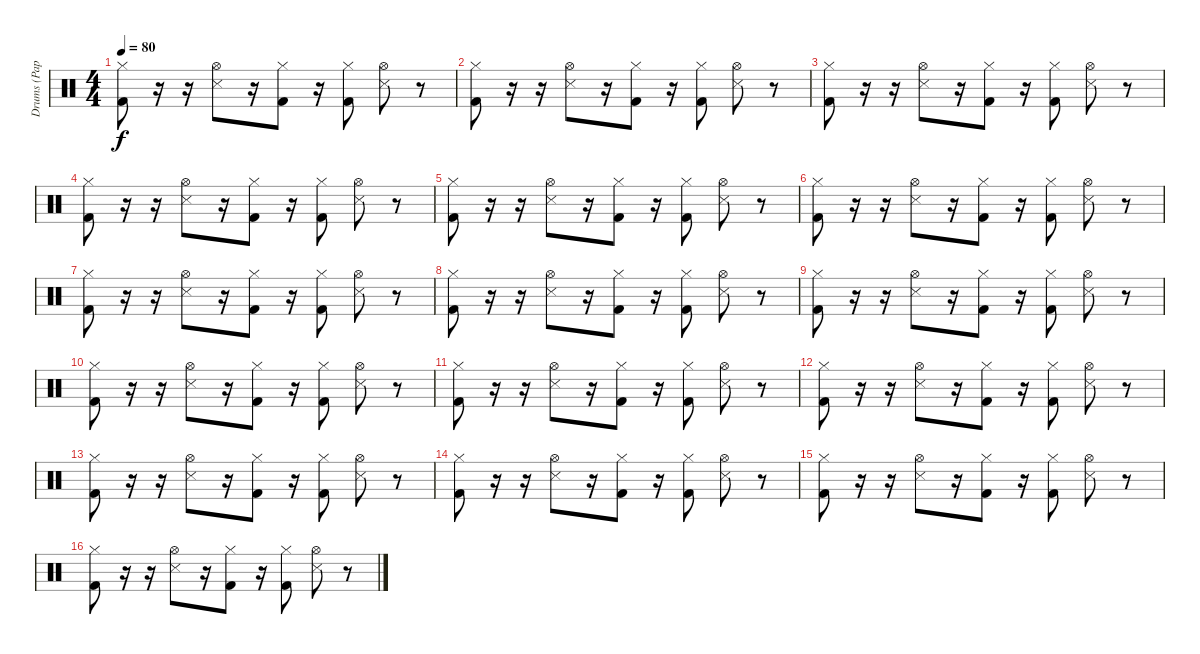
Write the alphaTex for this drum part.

\track ("Drums (Pappas)" "Drums (Pap") {instrument percussion}
\staff {score}
\articulation defaults
\ts (4 4)
\tempo 80
\clef neutral
\ks c
("Hi-Hat (closed)" "Kick (hit) 2").8{dy f} r.16 r.16 ("Hi-Hat (open)" "Snare (side stick) 3").8 r.16 ("Hi-Hat (closed)" "Kick (hit) 2").8 r.16 ("Hi-Hat (closed)" "Kick (hit) 2").8 ("Hi-Hat (open)" "Snare (side stick) 3").8 r.8 |
("Hi-Hat (closed)" "Kick (hit) 2").8 r.16 r.16 ("Hi-Hat (open)" "Snare (side stick) 3").8 r.16 ("Hi-Hat (closed)" "Kick (hit) 2").8 r.16 ("Hi-Hat (closed)" "Kick (hit) 2").8 ("Hi-Hat (open)" "Snare (side stick) 3").8 r.8 |
("Hi-Hat (closed)" "Kick (hit) 2").8 r.16 r.16 ("Hi-Hat (open)" "Snare (side stick) 3").8 r.16 ("Hi-Hat (closed)" "Kick (hit) 2").8 r.16 ("Hi-Hat (closed)" "Kick (hit) 2").8 ("Hi-Hat (open)" "Snare (side stick) 3").8 r.8 |
("Hi-Hat (closed)" "Kick (hit) 2").8 r.16 r.16 ("Hi-Hat (open)" "Snare (side stick) 3").8 r.16 ("Hi-Hat (closed)" "Kick (hit) 2").8 r.16 ("Hi-Hat (closed)" "Kick (hit) 2").8 ("Hi-Hat (open)" "Snare (side stick) 3").8 r.8 |
("Hi-Hat (closed)" "Kick (hit) 2").8 r.16 r.16 ("Hi-Hat (open)" "Snare (side stick) 3").8 r.16 ("Hi-Hat (closed)" "Kick (hit) 2").8 r.16 ("Hi-Hat (closed)" "Kick (hit) 2").8 ("Hi-Hat (open)" "Snare (side stick) 3").8 r.8 |
("Hi-Hat (closed)" "Kick (hit) 2").8 r.16 r.16 ("Hi-Hat (open)" "Snare (side stick) 3").8 r.16 ("Hi-Hat (closed)" "Kick (hit) 2").8 r.16 ("Hi-Hat (closed)" "Kick (hit) 2").8 ("Hi-Hat (open)" "Snare (side stick) 3").8 r.8 |
("Hi-Hat (closed)" "Kick (hit) 2").8 r.16 r.16 ("Hi-Hat (open)" "Snare (side stick) 3").8 r.16 ("Hi-Hat (closed)" "Kick (hit) 2").8 r.16 ("Hi-Hat (closed)" "Kick (hit) 2").8 ("Hi-Hat (open)" "Snare (side stick) 3").8 r.8 |
("Hi-Hat (closed)" "Kick (hit) 2").8 r.16 r.16 ("Hi-Hat (open)" "Snare (side stick) 3").8 r.16 ("Hi-Hat (closed)" "Kick (hit) 2").8 r.16 ("Hi-Hat (closed)" "Kick (hit) 2").8 ("Hi-Hat (open)" "Snare (side stick) 3").8 r.8 |
("Hi-Hat (closed)" "Kick (hit) 2").8 r.16 r.16 ("Hi-Hat (open)" "Snare (side stick) 3").8 r.16 ("Hi-Hat (closed)" "Kick (hit) 2").8 r.16 ("Hi-Hat (closed)" "Kick (hit) 2").8 ("Hi-Hat (open)" "Snare (side stick) 3").8 r.8 |
("Hi-Hat (closed)" "Kick (hit) 2").8 r.16 r.16 ("Hi-Hat (open)" "Snare (side stick) 3").8 r.16 ("Hi-Hat (closed)" "Kick (hit) 2").8 r.16 ("Hi-Hat (closed)" "Kick (hit) 2").8 ("Hi-Hat (open)" "Snare (side stick) 3").8 r.8 |
("Hi-Hat (closed)" "Kick (hit) 2").8 r.16 r.16 ("Hi-Hat (open)" "Snare (side stick) 3").8 r.16 ("Hi-Hat (closed)" "Kick (hit) 2").8 r.16 ("Hi-Hat (closed)" "Kick (hit) 2").8 ("Hi-Hat (open)" "Snare (side stick) 3").8 r.8 |
("Hi-Hat (closed)" "Kick (hit) 2").8 r.16 r.16 ("Hi-Hat (open)" "Snare (side stick) 3").8 r.16 ("Hi-Hat (closed)" "Kick (hit) 2").8 r.16 ("Hi-Hat (closed)" "Kick (hit) 2").8 ("Hi-Hat (open)" "Snare (side stick) 3").8 r.8 |
("Hi-Hat (closed)" "Kick (hit) 2").8 r.16 r.16 ("Hi-Hat (open)" "Snare (side stick) 3").8 r.16 ("Hi-Hat (closed)" "Kick (hit) 2").8 r.16 ("Hi-Hat (closed)" "Kick (hit) 2").8 ("Hi-Hat (open)" "Snare (side stick) 3").8 r.8 |
("Hi-Hat (closed)" "Kick (hit) 2").8 r.16 r.16 ("Hi-Hat (open)" "Snare (side stick) 3").8 r.16 ("Hi-Hat (closed)" "Kick (hit) 2").8 r.16 ("Hi-Hat (closed)" "Kick (hit) 2").8 ("Hi-Hat (open)" "Snare (side stick) 3").8 r.8 |
("Hi-Hat (closed)" "Kick (hit) 2").8 r.16 r.16 ("Hi-Hat (open)" "Snare (side stick) 3").8 r.16 ("Hi-Hat (closed)" "Kick (hit) 2").8 r.16 ("Hi-Hat (closed)" "Kick (hit) 2").8 ("Hi-Hat (open)" "Snare (side stick) 3").8 r.8 |
("Hi-Hat (closed)" "Kick (hit) 2").8 r.16 r.16 ("Hi-Hat (open)" "Snare (side stick) 3").8 r.16 ("Hi-Hat (closed)" "Kick (hit) 2").8 r.16 ("Hi-Hat (closed)" "Kick (hit) 2").8 ("Hi-Hat (open)" "Snare (side stick) 3").8 r.8
